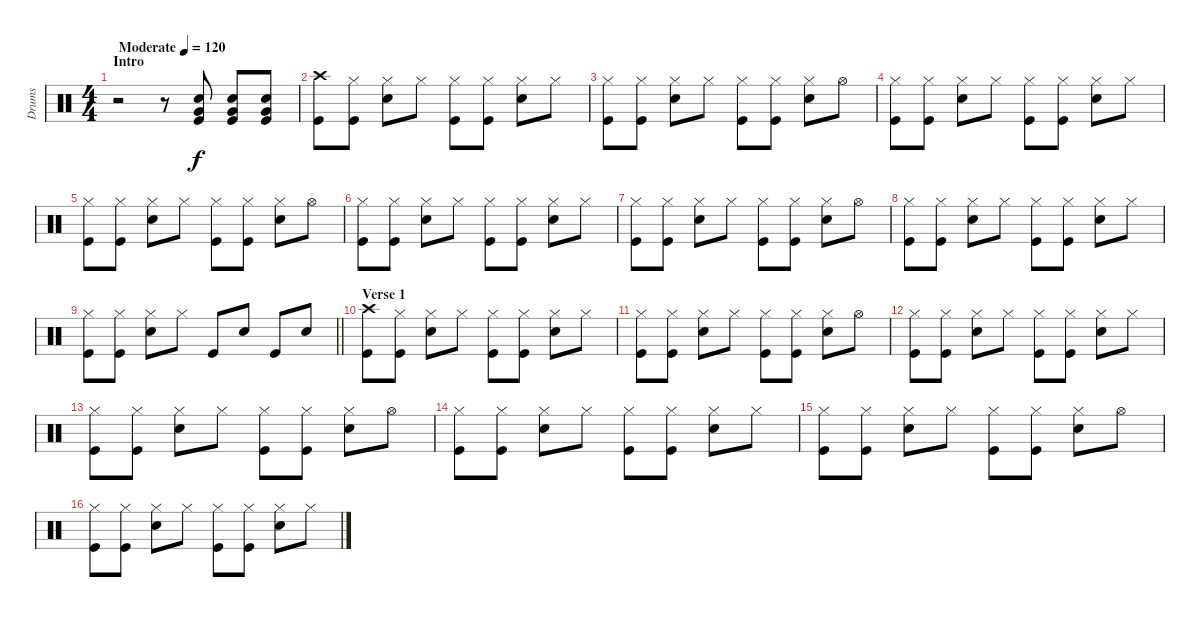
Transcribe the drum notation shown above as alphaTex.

\track ("Drums" "Drums") {instrument percussion}
\staff {score}
\articulation defaults
\ts (4 4)
\section ("" "Intro")
\tempo (120 "Moderate")
\clef neutral
\ks c
r.2{dy f} r.8 ("Snare (hit) 2" "Very Low Tom (hit)" "Kick (hit)").8 ("Snare (hit) 2" "Very Low Tom (hit)" "Kick (hit)").8 ("Snare (hit) 2" "Very Low Tom (hit)" "Kick (hit)").8 |
("Crash high (hit)" "Kick (hit)").8 ("Hi-Hat (closed)" "Kick (hit)").8 ("Hi-Hat (closed)" "Snare (hit) 2").8 "Hi-Hat (closed)".8 ("Hi-Hat (closed)" "Kick (hit)").8 ("Hi-Hat (closed)" "Kick (hit)").8 ("Hi-Hat (closed)" "Snare (hit) 2").8 "Hi-Hat (closed)".8 |
("Hi-Hat (closed)" "Kick (hit)").8 ("Hi-Hat (closed)" "Kick (hit)").8 ("Hi-Hat (closed)" "Snare (hit) 2").8 "Hi-Hat (closed)".8 ("Hi-Hat (closed)" "Kick (hit)").8 ("Hi-Hat (closed)" "Kick (hit)").8 ("Hi-Hat (closed)" "Snare (hit) 2").8 "Hi-Hat (open)".8 |
("Hi-Hat (closed)" "Kick (hit)").8 ("Hi-Hat (closed)" "Kick (hit)").8 ("Hi-Hat (closed)" "Snare (hit) 2").8 "Hi-Hat (closed)".8 ("Hi-Hat (closed)" "Kick (hit)").8 ("Hi-Hat (closed)" "Kick (hit)").8 ("Hi-Hat (closed)" "Snare (hit) 2").8 "Hi-Hat (closed)".8 |
("Hi-Hat (closed)" "Kick (hit)").8 ("Hi-Hat (closed)" "Kick (hit)").8 ("Hi-Hat (closed)" "Snare (hit) 2").8 "Hi-Hat (closed)".8 ("Hi-Hat (closed)" "Kick (hit)").8 ("Hi-Hat (closed)" "Kick (hit)").8 ("Hi-Hat (closed)" "Snare (hit) 2").8 "Hi-Hat (open)".8 |
("Hi-Hat (closed)" "Kick (hit)").8 ("Hi-Hat (closed)" "Kick (hit)").8 ("Hi-Hat (closed)" "Snare (hit) 2").8 "Hi-Hat (closed)".8 ("Hi-Hat (closed)" "Kick (hit)").8 ("Hi-Hat (closed)" "Kick (hit)").8 ("Hi-Hat (closed)" "Snare (hit) 2").8 "Hi-Hat (closed)".8 |
("Hi-Hat (closed)" "Kick (hit)").8 ("Hi-Hat (closed)" "Kick (hit)").8 ("Hi-Hat (closed)" "Snare (hit) 2").8 "Hi-Hat (closed)".8 ("Hi-Hat (closed)" "Kick (hit)").8 ("Hi-Hat (closed)" "Kick (hit)").8 ("Hi-Hat (closed)" "Snare (hit) 2").8 "Hi-Hat (open)".8 |
("Hi-Hat (closed)" "Kick (hit)").8 ("Hi-Hat (closed)" "Kick (hit)").8 ("Hi-Hat (closed)" "Snare (hit) 2").8 "Hi-Hat (closed)".8 ("Hi-Hat (closed)" "Kick (hit)").8 ("Hi-Hat (closed)" "Kick (hit)").8 ("Hi-Hat (closed)" "Snare (hit) 2").8 "Hi-Hat (closed)".8 |
\barLineRight lightlight
("Hi-Hat (closed)" "Kick (hit)").8 ("Hi-Hat (closed)" "Kick (hit)").8 ("Hi-Hat (closed)" "Snare (hit) 2").8 "Hi-Hat (closed)".8 "Kick (hit)".8 "Snare (hit) 2".8 "Kick (hit)".8 "Snare (hit) 2".8 |
\section ("" "Verse 1")
("Crash high (hit)" "Kick (hit)").8 ("Hi-Hat (closed)" "Kick (hit)").8 ("Hi-Hat (closed)" "Snare (hit) 2").8 "Hi-Hat (closed)".8 ("Hi-Hat (closed)" "Kick (hit)").8 ("Hi-Hat (closed)" "Kick (hit)").8 ("Hi-Hat (closed)" "Snare (hit) 2").8 "Hi-Hat (closed)".8 |
("Hi-Hat (closed)" "Kick (hit)").8 ("Hi-Hat (closed)" "Kick (hit)").8 ("Hi-Hat (closed)" "Snare (hit) 2").8 "Hi-Hat (closed)".8 ("Hi-Hat (closed)" "Kick (hit)").8 ("Hi-Hat (closed)" "Kick (hit)").8 ("Hi-Hat (closed)" "Snare (hit) 2").8 "Hi-Hat (open)".8 |
("Hi-Hat (closed)" "Kick (hit)").8 ("Hi-Hat (closed)" "Kick (hit)").8 ("Hi-Hat (closed)" "Snare (hit) 2").8 "Hi-Hat (closed)".8 ("Hi-Hat (closed)" "Kick (hit)").8 ("Hi-Hat (closed)" "Kick (hit)").8 ("Hi-Hat (closed)" "Snare (hit) 2").8 "Hi-Hat (closed)".8 |
("Hi-Hat (closed)" "Kick (hit)").8 ("Hi-Hat (closed)" "Kick (hit)").8 ("Hi-Hat (closed)" "Snare (hit) 2").8 "Hi-Hat (closed)".8 ("Hi-Hat (closed)" "Kick (hit)").8 ("Hi-Hat (closed)" "Kick (hit)").8 ("Hi-Hat (closed)" "Snare (hit) 2").8 "Hi-Hat (open)".8 |
("Hi-Hat (closed)" "Kick (hit)").8 ("Hi-Hat (closed)" "Kick (hit)").8 ("Hi-Hat (closed)" "Snare (hit) 2").8 "Hi-Hat (closed)".8 ("Hi-Hat (closed)" "Kick (hit)").8 ("Hi-Hat (closed)" "Kick (hit)").8 ("Hi-Hat (closed)" "Snare (hit) 2").8 "Hi-Hat (closed)".8 |
("Hi-Hat (closed)" "Kick (hit)").8 ("Hi-Hat (closed)" "Kick (hit)").8 ("Hi-Hat (closed)" "Snare (hit) 2").8 "Hi-Hat (closed)".8 ("Hi-Hat (closed)" "Kick (hit)").8 ("Hi-Hat (closed)" "Kick (hit)").8 ("Hi-Hat (closed)" "Snare (hit) 2").8 "Hi-Hat (open)".8 |
("Hi-Hat (closed)" "Kick (hit)").8 ("Hi-Hat (closed)" "Kick (hit)").8 ("Hi-Hat (closed)" "Snare (hit) 2").8 "Hi-Hat (closed)".8 ("Hi-Hat (closed)" "Kick (hit)").8 ("Hi-Hat (closed)" "Kick (hit)").8 ("Hi-Hat (closed)" "Snare (hit) 2").8 "Hi-Hat (closed)".8
